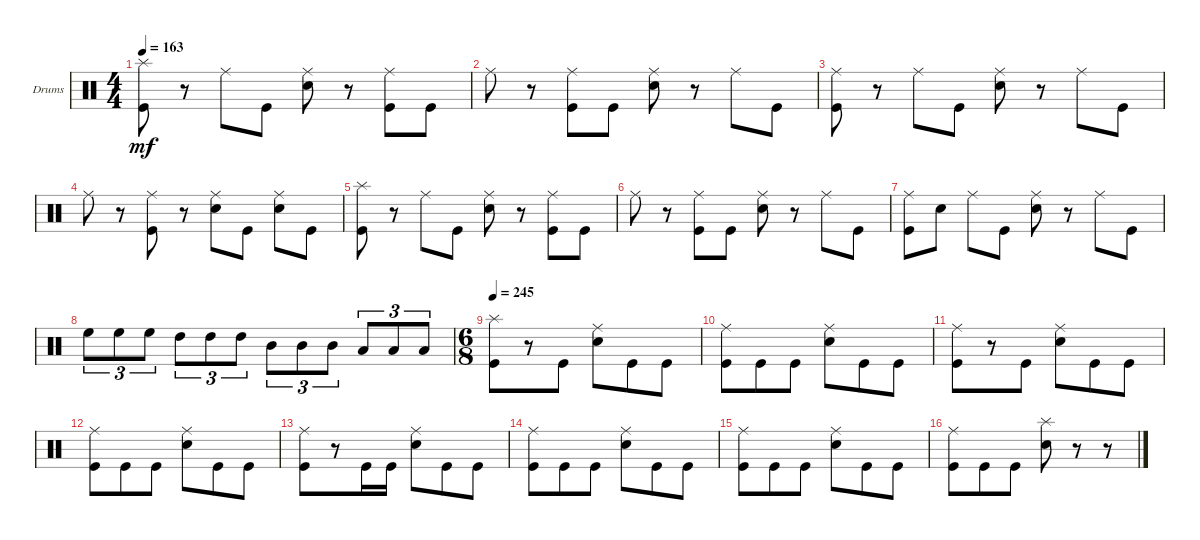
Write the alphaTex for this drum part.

\bracketExtendMode groupsimilarinstruments
\firstSystemTrackNameOrientation horizontal
\otherSystemsTrackNameOrientation horizontal
\track ("Drumkit" "Drums") {instrument percussion}
\staff {score}
\articulation defaults
\ts (4 4)
\tempo 163
\clef neutral
\ks c
("Kick (hit)" "Splash (hit)").8{dy mf} r.8 "Ride (middle)".8 "Kick (hit)".8 ("Snare (hit) 2" "Ride (middle)").8 r.8 ("Kick (hit)" "Ride (middle)").8 "Kick (hit)".8 |
"Ride (middle)".8 r.8 ("Kick (hit)" "Ride (middle)").8 "Kick (hit)".8 ("Snare (hit) 2" "Ride (middle)").8 r.8 "Ride (middle)".8 "Kick (hit)".8 |
("Kick (hit)" "Ride (middle)").8 r.8 "Ride (middle)".8 "Kick (hit)".8 ("Snare (hit) 2" "Ride (middle)").8 r.8 "Ride (middle)".8 "Kick (hit)".8 |
"Ride (middle)".8 r.8 ("Kick (hit)" "Ride (middle)").8 r.8 ("Snare (hit) 2" "Ride (middle)").8 "Kick (hit)".8 ("Ride (middle)" "Snare (hit) 2").8 "Kick (hit)".8 |
("Kick (hit)" "Splash (hit)").8 r.8 "Ride (middle)".8 "Kick (hit)".8 ("Snare (hit) 2" "Ride (middle)").8 r.8 ("Kick (hit)" "Ride (middle)").8 "Kick (hit)".8 |
"Ride (middle)".8 r.8 ("Kick (hit)" "Ride (middle)").8 "Kick (hit)".8 ("Snare (hit) 2" "Ride (middle)").8 r.8 "Ride (middle)".8 "Kick (hit)".8 |
("Kick (hit)" "Ride (middle)").8 "Snare (hit) 2".8 "Ride (middle)".8 "Kick (hit)".8 ("Snare (hit) 2" "Ride (middle)").8 r.8 "Ride (middle)".8 "Kick (hit)".8 |
"High Floor Tom (hit)".8{tu (3 2)} "High Floor Tom (hit)".8{tu (3 2)} "High Floor Tom (hit)".8{tu (3 2)} "High Tom (hit)".8{tu (3 2)} "High Tom (hit)".8{tu (3 2)} "High Tom (hit)".8{tu (3 2)} "Mid Tom (hit)".8{tu (3 2)} "Mid Tom (hit)".8{tu (3 2)} "Mid Tom (hit)".8{tu (3 2)} "Low Tom (hit)".8{tu (3 2)} "Low Tom (hit)".8{tu (3 2)} "Low Tom (hit)".8{tu (3 2)} |
\ts (6 8)
\tempo 245
("Kick (hit)" "Splash (hit)").8 r.8 "Kick (hit)".8 ("Snare (hit) 2" "Ride (middle)").8 "Kick (hit)".8 "Kick (hit)".8 |
("Kick (hit)" "Ride (middle)").8 "Kick (hit)".8 "Kick (hit)".8 ("Snare (hit) 2" "Ride (middle)").8 "Kick (hit)".8 "Kick (hit)".8 |
("Kick (hit)" "Ride (middle)").8 r.8 "Kick (hit)".8 ("Snare (hit) 2" "Ride (middle)").8 "Kick (hit)".8 "Kick (hit)".8 |
("Kick (hit)" "Ride (middle)").8 "Kick (hit)".8 "Kick (hit)".8 ("Snare (hit) 2" "Ride (middle)").8 "Kick (hit)".8 "Kick (hit)".8 |
("Kick (hit)" "Ride (middle)").8 r.8 "Kick (hit)".16 "Kick (hit)".16 ("Snare (hit) 2" "Ride (middle)").8 "Kick (hit)".8 "Kick (hit)".8 |
("Kick (hit)" "Ride (middle)").8 "Kick (hit)".8 "Kick (hit)".8 ("Snare (hit) 2" "Ride (middle)").8 "Kick (hit)".8 "Kick (hit)".8 |
("Kick (hit)" "Ride (middle)").8 "Kick (hit)".8 "Kick (hit)".8 ("Snare (hit) 2" "Ride (middle)").8 "Kick (hit)".8 "Kick (hit)".8 |
("Kick (hit)" "Ride (middle)").8 "Kick (hit)".8 "Kick (hit)".8 ("Snare (hit) 2" "Splash (hit)").8 r.8 r.8
